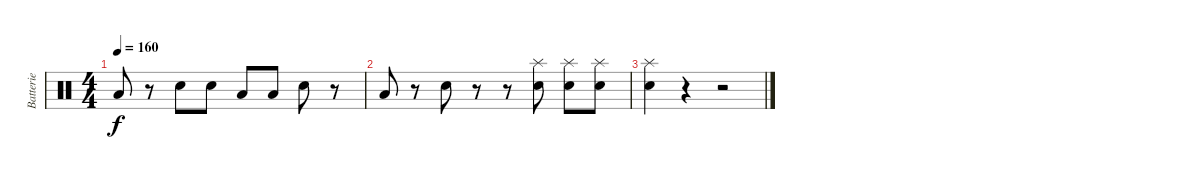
\track ("Batterie" "Batterie") {instrument percussion}
\staff {score}
\articulation defaults
\ts (4 4)
\tempo 160
\clef neutral
\ks c "Low Floor Tom (hit)".8{dy f}
r.8 "Electric Snare (hit)".8 "Electric Snare (hit)".8 "Low Floor Tom (hit)".8 "Low Floor Tom (hit)".8 "Electric Snare (hit)".8 r.8 |
"Low Floor Tom (hit)".8 r.8 "Electric Snare (hit)".8 r.8 r.8 ("Electric Snare (hit)" "Splash (hit)").8 ("Electric Snare (hit)" "Splash (hit)").8 ("Electric Snare (hit)" "Splash (hit)").8 |
("Electric Snare (hit)" "Splash (hit)").4 r.4 r.2
